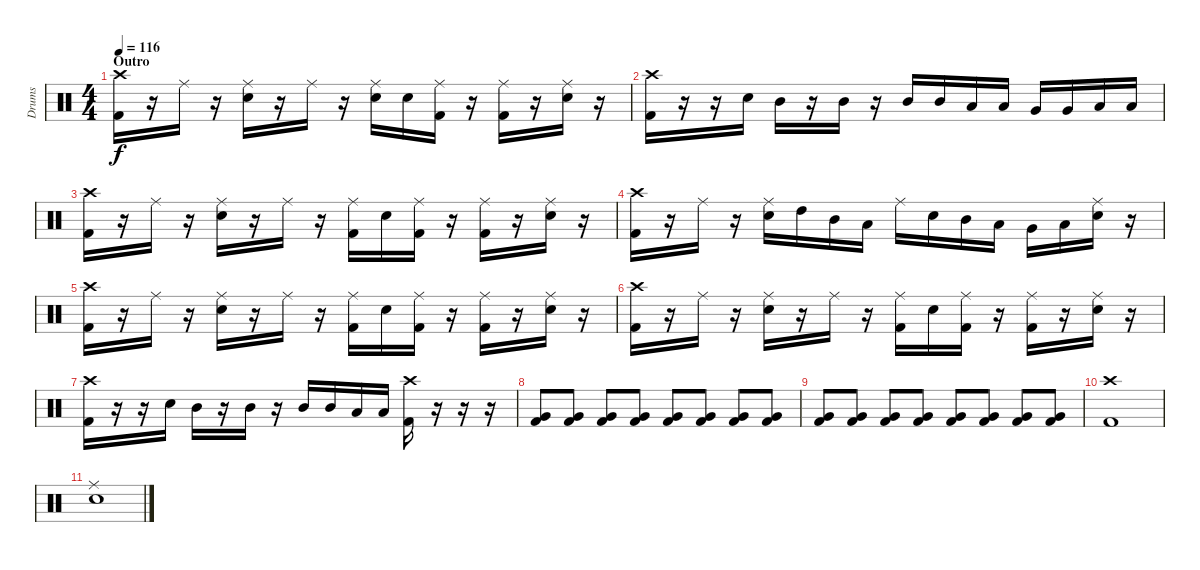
\track ("Drums" "Drums") {instrument percussion}
\staff {score}
\articulation defaults
\ts (4 4)
\section ("" "Outro")
\tempo 116
\clef neutral
\ks c
("Crash high (hit)" "Kick (hit) 2").16{dy f} r.16 "Ride (middle)".16 r.16 ("Ride (middle)" "Snare (hit) 2").16 r.16 "Ride (middle)".16 r.16 ("Ride (middle)" "Snare (hit) 2").16 "Snare (hit) 2".16 ("Ride (middle)" "Kick (hit) 2").16 r.16 ("Ride (middle)" "Kick (hit) 2").16 r.16 ("Ride (middle)" "Snare (hit) 2").16 r.16 |
("Crash high (hit)" "Kick (hit) 2").16 r.16 r.16 "Snare (hit) 2".16 "Mid Tom (hit)".16 r.16 "Mid Tom (hit)".16 r.16 "Mid Tom (hit)".16 "Mid Tom (hit)".16 "Low Tom (hit)".16 "Low Tom (hit)".16 "Very Low Tom (hit)".16 "Very Low Tom (hit)".16 "Low Floor Tom (hit)".16 "Low Floor Tom (hit)".16 |
("Crash high (hit)" "Kick (hit) 2").16 r.16 "Ride (middle)".16 r.16 ("Ride (middle)" "Snare (hit) 2").16 r.16 "Ride (middle)".16 r.16 ("Ride (middle)" "Kick (hit) 2").16 "Snare (hit) 2".16 ("Ride (middle)" "Kick (hit) 2").16 r.16 ("Ride (middle)" "Kick (hit) 2").16 r.16 ("Ride (middle)" "Snare (hit) 2").16 r.16 |
("Crash high (hit)" "Kick (hit) 2").16 r.16 "Ride (middle)".16 r.16 ("Ride (middle)" "Snare (hit) 2").16 "High Tom (hit)".16 "Mid Tom (hit)".16 "Low Tom (hit)".16 "Ride (middle)".16 "Snare (hit) 2".16 "Mid Tom (hit)".16 "Low Tom (hit)".16 "Very Low Tom (hit)".16 "Low Floor Tom (hit)".16 ("Ride (middle)" "Snare (hit) 2").16 r.16 |
("Crash high (hit)" "Kick (hit) 2").16 r.16 "Ride (middle)".16 r.16 ("Ride (middle)" "Snare (hit) 2").16 r.16 "Ride (middle)".16 r.16 ("Ride (middle)" "Kick (hit) 2").16 "Snare (hit) 2".16 ("Ride (middle)" "Kick (hit) 2").16 r.16 ("Ride (middle)" "Kick (hit) 2").16 r.16 ("Ride (middle)" "Snare (hit) 2").16 r.16 |
("Crash high (hit)" "Kick (hit) 2").16 r.16 "Ride (middle)".16 r.16 ("Ride (middle)" "Snare (hit) 2").16 r.16 "Ride (middle)".16 r.16 ("Ride (middle)" "Kick (hit) 2").16 "Snare (hit) 2".16 ("Ride (middle)" "Kick (hit) 2").16 r.16 ("Ride (middle)" "Kick (hit) 2").16 r.16 ("Ride (middle)" "Snare (hit) 2").16 r.16 |
("Crash high (hit)" "Kick (hit) 2").16 r.16 r.16 "Snare (hit) 2".16 "Mid Tom (hit)".16 r.16 "Mid Tom (hit)".16 r.16 "Mid Tom (hit)".16 "Mid Tom (hit)".16 "Low Tom (hit)".16 "Low Tom (hit)".16 ("Crash high (hit)" "Kick (hit) 2").16 r.16 r.16 r.16 |
("Very Low Tom (hit)" "Kick (hit) 2").8 ("Very Low Tom (hit)" "Kick (hit) 2").8 ("Very Low Tom (hit)" "Kick (hit) 2").8 ("Very Low Tom (hit)" "Kick (hit) 2").8 ("Very Low Tom (hit)" "Kick (hit) 2").8 ("Very Low Tom (hit)" "Kick (hit) 2").8 ("Very Low Tom (hit)" "Kick (hit) 2").8 ("Very Low Tom (hit)" "Kick (hit) 2").8 |
("Very Low Tom (hit)" "Kick (hit) 2").8 ("Very Low Tom (hit)" "Kick (hit) 2").8 ("Very Low Tom (hit)" "Kick (hit) 2").8 ("Very Low Tom (hit)" "Kick (hit) 2").8 ("Very Low Tom (hit)" "Kick (hit) 2").8 ("Very Low Tom (hit)" "Kick (hit) 2").8 ("Very Low Tom (hit)" "Kick (hit) 2").8 ("Very Low Tom (hit)" "Kick (hit) 2").8 |
("Crash high (hit)" "Kick (hit) 2").1 |
("Ride (middle)" "Snare (hit) 2").1
